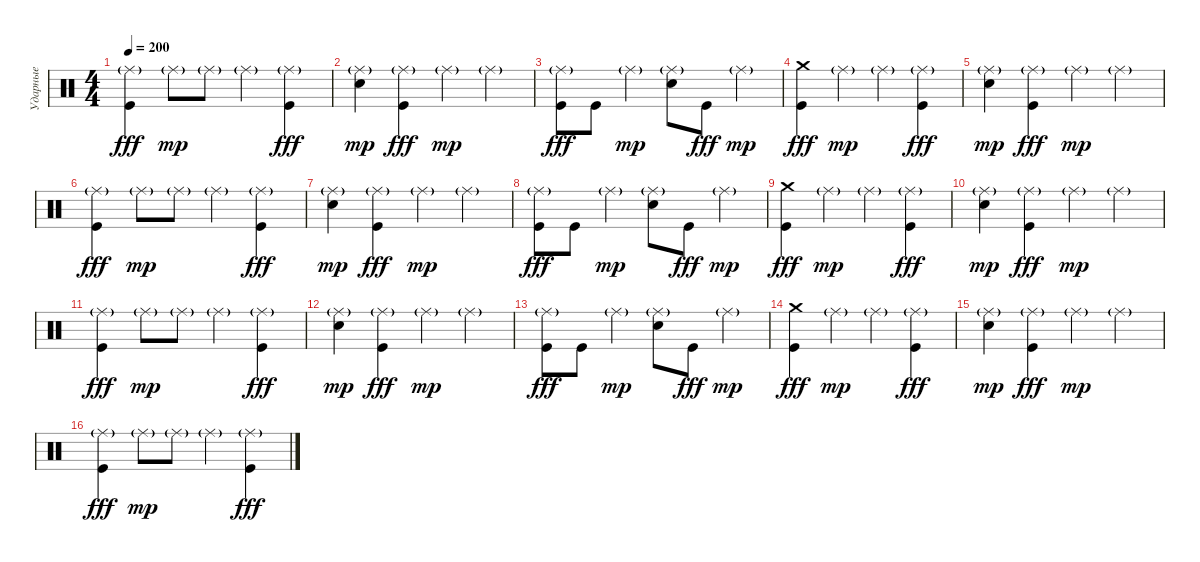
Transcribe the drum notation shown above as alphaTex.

\track ("Ударные" "Ударные") {instrument percussion}
\staff {score}
\articulation defaults
\ts (4 4)
\tempo 200
\clef neutral
\ks c
("Ride (middle)"{g} "Kick (hit)").4{dy fff} "Ride (middle)"{g}.8{dy mp} "Ride (middle)"{g}.8 "Ride (middle)"{g}.4 ("Ride (middle)"{g} "Kick (hit)").4{dy fff} |
("Ride (middle)"{g} "Electric Snare (hit)").4{dy mp} ("Ride (middle)"{g} "Kick (hit)").4{dy fff} "Ride (middle)"{g}.4{dy mp} "Ride (middle)"{g}.4 |
("Ride (middle)"{g} "Kick (hit)").8{dy fff} "Kick (hit)".8 "Ride (middle)"{g}.4{dy mp} ("Ride (middle)"{g} "Electric Snare (hit)").8 "Kick (hit)".8{dy fff} "Ride (middle)"{g}.4{dy mp} |
("Crash medium (hit)" "Kick (hit)").4{dy fff volume 13} "Ride (middle)"{g}.4{dy mp} "Ride (middle)"{g}.4 ("Ride (middle)"{g} "Kick (hit)").4{dy fff} |
("Ride (middle)"{g} "Electric Snare (hit)").4{dy mp} ("Ride (middle)"{g} "Kick (hit)").4{dy fff} "Ride (middle)"{g}.4{dy mp} "Ride (middle)"{g}.4 |
("Ride (middle)"{g} "Kick (hit)").4{dy fff} "Ride (middle)"{g}.8{dy mp} "Ride (middle)"{g}.8 "Ride (middle)"{g}.4 ("Ride (middle)"{g} "Kick (hit)").4{dy fff} |
("Ride (middle)"{g} "Electric Snare (hit)").4{dy mp} ("Ride (middle)"{g} "Kick (hit)").4{dy fff} "Ride (middle)"{g}.4{dy mp} "Ride (middle)"{g}.4 |
("Ride (middle)"{g} "Kick (hit)").8{dy fff} "Kick (hit)".8 "Ride (middle)"{g}.4{dy mp} ("Ride (middle)"{g} "Electric Snare (hit)").8 "Kick (hit)".8{dy fff} "Ride (middle)"{g}.4{dy mp} |
("Crash medium (hit)" "Kick (hit)").4{dy fff} "Ride (middle)"{g}.4{dy mp} "Ride (middle)"{g}.4 ("Ride (middle)"{g} "Kick (hit)").4{dy fff} |
("Ride (middle)"{g} "Electric Snare (hit)").4{dy mp} ("Ride (middle)"{g} "Kick (hit)").4{dy fff} "Ride (middle)"{g}.4{dy mp} "Ride (middle)"{g}.4 |
("Ride (middle)"{g} "Kick (hit)").4{dy fff} "Ride (middle)"{g}.8{dy mp} "Ride (middle)"{g}.8 "Ride (middle)"{g}.4 ("Ride (middle)"{g} "Kick (hit)").4{dy fff} |
("Ride (middle)"{g} "Electric Snare (hit)").4{dy mp} ("Ride (middle)"{g} "Kick (hit)").4{dy fff} "Ride (middle)"{g}.4{dy mp} "Ride (middle)"{g}.4 |
("Ride (middle)"{g} "Kick (hit)").8{dy fff} "Kick (hit)".8 "Ride (middle)"{g}.4{dy mp} ("Ride (middle)"{g} "Electric Snare (hit)").8 "Kick (hit)".8{dy fff} "Ride (middle)"{g}.4{dy mp} |
("Crash medium (hit)" "Kick (hit)").4{dy fff volume 13} "Ride (middle)"{g}.4{dy mp} "Ride (middle)"{g}.4 ("Ride (middle)"{g} "Kick (hit)").4{dy fff} |
("Ride (middle)"{g} "Electric Snare (hit)").4{dy mp} ("Ride (middle)"{g} "Kick (hit)").4{dy fff} "Ride (middle)"{g}.4{dy mp} "Ride (middle)"{g}.4 |
("Ride (middle)"{g} "Kick (hit)").4{dy fff} "Ride (middle)"{g}.8{dy mp} "Ride (middle)"{g}.8 "Ride (middle)"{g}.4 ("Ride (middle)"{g} "Kick (hit)").4{dy fff}
